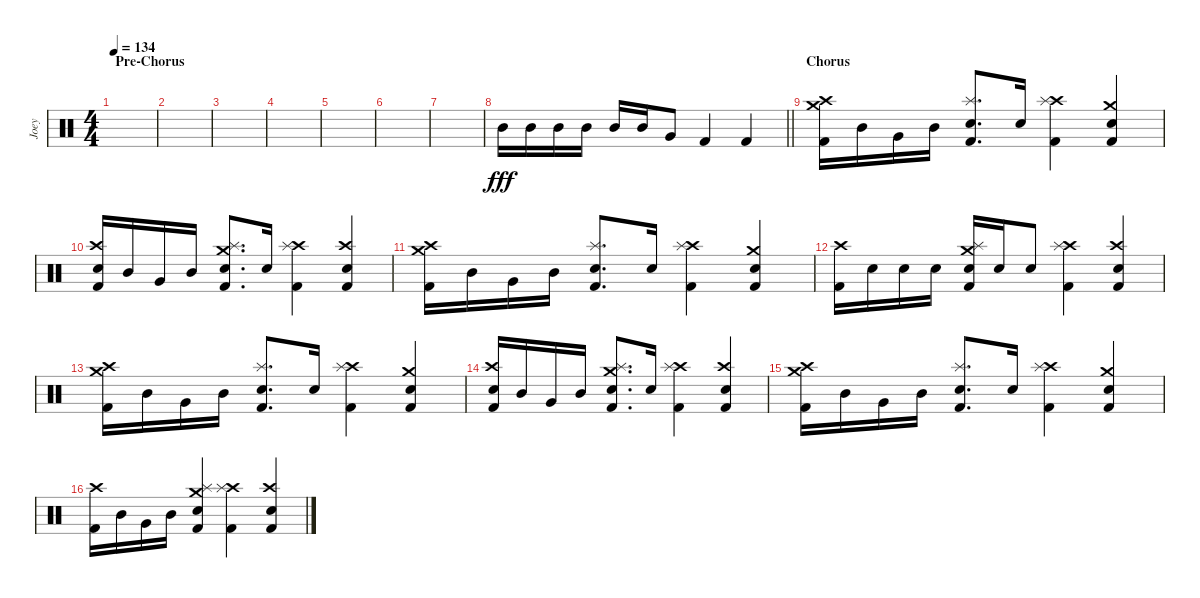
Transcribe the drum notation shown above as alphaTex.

\track ("Joey" "Joey") {instrument percussion}
\staff {score}
\articulation defaults
\ts (4 4)
\section ("" "Pre-Chorus")
\tempo 134
\clef neutral
\ks c
|
|
|
|
|
|
|
\barLineRight lightlight "Mid Tom (hit)".16{dy fff} "Mid Tom (hit)".16 "Mid Tom (hit)".16 "Mid Tom (hit)".16 "Mid Tom (hit)".16 "Mid Tom (hit)".16 "Very Low Tom (hit)".8 "Kick (hit) 2".4 "Kick (hit) 2".4
|
\section ("" "Chorus")
("Crash high (hit)" "Crash medium (hit)" "Kick (hit) 2").16 "Mid Tom (hit)".16 "Very Low Tom (hit)".16 "Mid Tom (hit)".16 ("Splash (hit)" "Electric Snare (hit)" "Kick (hit) 2").8{d} "Electric Snare (hit)".16 ("Crash high (hit)" "Splash (hit)" "Kick (hit) 2").4 ("Crash medium (hit)" "Electric Snare (hit)" "Kick (hit) 2").4 |
("Crash high (hit)" "Electric Snare (hit)" "Kick (hit) 2").16 "Mid Tom (hit)".16 "Very Low Tom (hit)".16 "Mid Tom (hit)".16 ("Crash medium (hit)" "Splash (hit)" "Electric Snare (hit)" "Kick (hit) 2").8{d} "Electric Snare (hit)".16 ("Crash high (hit)" "Splash (hit)" "Kick (hit) 2").4 ("Crash high (hit)" "Electric Snare (hit)" "Kick (hit) 2").4 |
("Crash high (hit)" "Crash medium (hit)" "Kick (hit) 2").16 "Mid Tom (hit)".16 "Very Low Tom (hit)".16 "Mid Tom (hit)".16 ("Splash (hit)" "Electric Snare (hit)" "Kick (hit) 2").8{d} "Electric Snare (hit)".16 ("Crash high (hit)" "Splash (hit)" "Kick (hit) 2").4 ("Crash medium (hit)" "Electric Snare (hit)" "Kick (hit) 2").4 |
("Crash high (hit)" "Kick (hit) 2").16 "Electric Snare (hit)".16 "Electric Snare (hit)".16 "Electric Snare (hit)".16 ("Crash medium (hit)" "Splash (hit)" "Electric Snare (hit)" "Kick (hit) 2").16 "Electric Snare (hit)".16 "Electric Snare (hit)".8 ("Crash high (hit)" "Splash (hit)" "Kick (hit) 2").4 ("Crash high (hit)" "Electric Snare (hit)" "Kick (hit) 2").4 |
("Crash high (hit)" "Crash medium (hit)" "Kick (hit) 2").16 "Mid Tom (hit)".16 "Very Low Tom (hit)".16 "Mid Tom (hit)".16 ("Splash (hit)" "Electric Snare (hit)" "Kick (hit) 2").8{d} "Electric Snare (hit)".16 ("Crash high (hit)" "Splash (hit)" "Kick (hit) 2").4 ("Crash medium (hit)" "Electric Snare (hit)" "Kick (hit) 2").4 |
("Crash high (hit)" "Electric Snare (hit)" "Kick (hit) 2").16 "Mid Tom (hit)".16 "Very Low Tom (hit)".16 "Mid Tom (hit)".16 ("Crash medium (hit)" "Splash (hit)" "Electric Snare (hit)" "Kick (hit) 2").8{d} "Electric Snare (hit)".16 ("Crash high (hit)" "Splash (hit)" "Kick (hit) 2").4 ("Crash high (hit)" "Electric Snare (hit)" "Kick (hit) 2").4 |
("Crash high (hit)" "Crash medium (hit)" "Kick (hit) 2").16 "Mid Tom (hit)".16 "Very Low Tom (hit)".16 "Mid Tom (hit)".16 ("Splash (hit)" "Electric Snare (hit)" "Kick (hit) 2").8{d} "Electric Snare (hit)".16 ("Crash high (hit)" "Splash (hit)" "Kick (hit) 2").4 ("Crash medium (hit)" "Electric Snare (hit)" "Kick (hit) 2").4 |
("Crash high (hit)" "Kick (hit) 2").16 "Mid Tom (hit)".16 "Very Low Tom (hit)".16 "Mid Tom (hit)".16 ("Crash medium (hit)" "Splash (hit)" "Electric Snare (hit)" "Kick (hit) 2").4 ("Crash high (hit)" "Splash (hit)" "Kick (hit) 2").4 ("Crash high (hit)" "Electric Snare (hit)" "Kick (hit) 2").4
